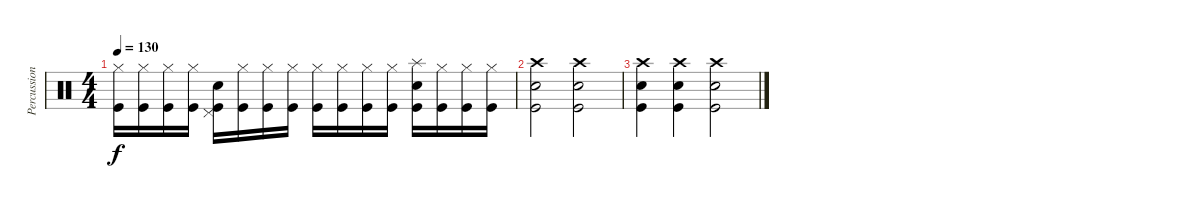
\track ("Percussion" "Percussion") {instrument percussion}
\staff {score}
\articulation defaults
\ts (4 4)
\tempo 130
\clef neutral
\ks c
("Hi-Hat (closed)" "Kick (hit)").16{dy f} ("Hi-Hat (closed)" "Kick (hit)").16 ("Hi-Hat (closed)" "Kick (hit)").16 ("Hi-Hat (closed)" "Kick (hit)").16 ("Pedal Hi-Hat (hit)" "Snare (hit) 2" "Kick (hit)").16 ("Hi-Hat (closed)" "Kick (hit)").16 ("Hi-Hat (closed)" "Kick (hit)").16 ("Hi-Hat (closed)" "Kick (hit)").16 ("Hi-Hat (closed)" "Kick (hit)").16 ("Hi-Hat (closed)" "Kick (hit)").16 ("Hi-Hat (closed)" "Kick (hit)").16 ("Hi-Hat (closed)" "Kick (hit)").16 ("Splash (hit)" "Snare (hit) 2" "Kick (hit)").16 ("Hi-Hat (closed)" "Kick (hit)").16 ("Hi-Hat (closed)" "Kick (hit)").16 ("Hi-Hat (closed)" "Kick (hit)").16 |
("Crash high (hit)" "Snare (hit) 2" "Kick (hit)").2 ("Crash high (hit)" "Snare (hit) 2" "Kick (hit)").2 |
("Crash high (hit)" "Snare (hit) 2" "Kick (hit)").4 ("Crash high (hit)" "Snare (hit) 2" "Kick (hit)").4 ("Crash high (hit)" "Snare (hit) 2" "Kick (hit)").2
